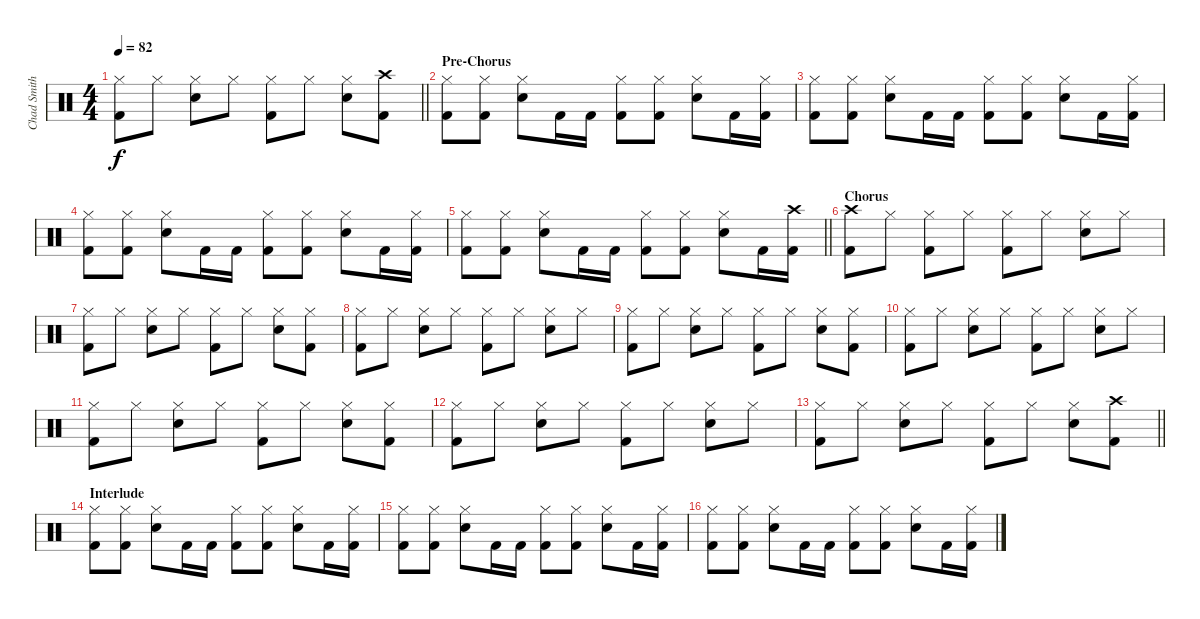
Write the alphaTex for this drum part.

\track ("Chad Smith Drum" "Chad Smith") {instrument percussion}
\staff {score}
\articulation defaults
\ts (4 4)
\tempo 82
\clef neutral
\barLineRight lightlight
\ks c
("Kick (hit) 2" "Hi-Hat (closed)").8{dy f} "Hi-Hat (closed)".8 ("Snare (hit) 2" "Hi-Hat (closed)").8 "Hi-Hat (closed)".8 ("Kick (hit) 2" "Hi-Hat (closed)").8 "Hi-Hat (closed)".8 ("Snare (hit) 2" "Hi-Hat (closed)").8 ("Kick (hit) 2" "Crash high (hit)").8 |
\section ("" "Pre-Chorus")
("Kick (hit) 2" "Hi-Hat (closed)").8 ("Kick (hit) 2" "Hi-Hat (closed)").8 ("Snare (hit) 2" "Hi-Hat (closed)").8 "Kick (hit) 2".16 "Kick (hit) 2".16 ("Kick (hit) 2" "Hi-Hat (closed)").8 ("Kick (hit) 2" "Hi-Hat (closed)").8 ("Snare (hit) 2" "Hi-Hat (closed)").8 "Kick (hit) 2".16 ("Kick (hit) 2" "Hi-Hat (closed)").16 |
("Kick (hit) 2" "Hi-Hat (closed)").8 ("Kick (hit) 2" "Hi-Hat (closed)").8 ("Snare (hit) 2" "Hi-Hat (closed)").8 "Kick (hit) 2".16 "Kick (hit) 2".16 ("Kick (hit) 2" "Hi-Hat (closed)").8 ("Kick (hit) 2" "Hi-Hat (closed)").8 ("Snare (hit) 2" "Hi-Hat (closed)").8 "Kick (hit) 2".16 ("Kick (hit) 2" "Hi-Hat (closed)").16 |
("Kick (hit) 2" "Hi-Hat (closed)").8 ("Kick (hit) 2" "Hi-Hat (closed)").8 ("Snare (hit) 2" "Hi-Hat (closed)").8 "Kick (hit) 2".16 "Kick (hit) 2".16 ("Kick (hit) 2" "Hi-Hat (closed)").8 ("Kick (hit) 2" "Hi-Hat (closed)").8 ("Snare (hit) 2" "Hi-Hat (closed)").8 "Kick (hit) 2".16 ("Kick (hit) 2" "Hi-Hat (closed)").16 |
\barLineRight lightlight
("Kick (hit) 2" "Hi-Hat (closed)").8 ("Kick (hit) 2" "Hi-Hat (closed)").8 ("Snare (hit) 2" "Hi-Hat (closed)").8 "Kick (hit) 2".16 "Kick (hit) 2".16 ("Kick (hit) 2" "Hi-Hat (closed)").8 ("Kick (hit) 2" "Hi-Hat (closed)").8 ("Snare (hit) 2" "Hi-Hat (closed)").8 "Kick (hit) 2".16 ("Kick (hit) 2" "Crash high (hit)").16 |
\section ("" "Chorus")
("Crash high (hit)" "Kick (hit) 2").8 "Hi-Hat (closed)".8 ("Kick (hit) 2" "Hi-Hat (closed)").8 "Hi-Hat (closed)".8 ("Kick (hit) 2" "Hi-Hat (closed)").8 "Hi-Hat (closed)".8 ("Snare (hit) 2" "Hi-Hat (closed)").8 "Hi-Hat (closed)".8 |
("Kick (hit) 2" "Hi-Hat (closed)").8 "Hi-Hat (closed)".8 ("Snare (hit) 2" "Hi-Hat (closed)").8 "Hi-Hat (closed)".8 ("Kick (hit) 2" "Hi-Hat (closed)").8 "Hi-Hat (closed)".8 ("Snare (hit) 2" "Hi-Hat (closed)").8 ("Kick (hit) 2" "Hi-Hat (closed)").8 |
("Kick (hit) 2" "Hi-Hat (closed)").8 "Hi-Hat (closed)".8 ("Snare (hit) 2" "Hi-Hat (closed)").8 "Hi-Hat (closed)".8 ("Kick (hit) 2" "Hi-Hat (closed)").8 "Hi-Hat (closed)".8 ("Snare (hit) 2" "Hi-Hat (closed)").8 "Hi-Hat (closed)".8 |
("Kick (hit) 2" "Hi-Hat (closed)").8 "Hi-Hat (closed)".8 ("Snare (hit) 2" "Hi-Hat (closed)").8 "Hi-Hat (closed)".8 ("Kick (hit) 2" "Hi-Hat (closed)").8 "Hi-Hat (closed)".8 ("Snare (hit) 2" "Hi-Hat (closed)").8 ("Kick (hit) 2" "Hi-Hat (closed)").8 |
("Kick (hit) 2" "Hi-Hat (closed)").8 "Hi-Hat (closed)".8 ("Snare (hit) 2" "Hi-Hat (closed)").8 "Hi-Hat (closed)".8 ("Kick (hit) 2" "Hi-Hat (closed)").8 "Hi-Hat (closed)".8 ("Snare (hit) 2" "Hi-Hat (closed)").8 "Hi-Hat (closed)".8 |
("Kick (hit) 2" "Hi-Hat (closed)").8 "Hi-Hat (closed)".8 ("Snare (hit) 2" "Hi-Hat (closed)").8 "Hi-Hat (closed)".8 ("Kick (hit) 2" "Hi-Hat (closed)").8 "Hi-Hat (closed)".8 ("Snare (hit) 2" "Hi-Hat (closed)").8 ("Kick (hit) 2" "Hi-Hat (closed)").8 |
("Kick (hit) 2" "Hi-Hat (closed)").8 "Hi-Hat (closed)".8 ("Snare (hit) 2" "Hi-Hat (closed)").8 "Hi-Hat (closed)".8 ("Kick (hit) 2" "Hi-Hat (closed)").8 "Hi-Hat (closed)".8 ("Snare (hit) 2" "Hi-Hat (closed)").8 "Hi-Hat (closed)".8 |
\barLineRight lightlight
("Kick (hit) 2" "Hi-Hat (closed)").8 "Hi-Hat (closed)".8 ("Snare (hit) 2" "Hi-Hat (closed)").8 "Hi-Hat (closed)".8 ("Kick (hit) 2" "Hi-Hat (closed)").8 "Hi-Hat (closed)".8 ("Snare (hit) 2" "Hi-Hat (closed)").8 ("Kick (hit) 2" "Crash high (hit)").8 |
\section ("" "Interlude")
("Kick (hit) 2" "Hi-Hat (closed)").8 ("Kick (hit) 2" "Hi-Hat (closed)").8 ("Snare (hit) 2" "Hi-Hat (closed)").8 "Kick (hit) 2".16 "Kick (hit) 2".16 ("Kick (hit) 2" "Hi-Hat (closed)").8 ("Kick (hit) 2" "Hi-Hat (closed)").8 ("Snare (hit) 2" "Hi-Hat (closed)").8 "Kick (hit) 2".16 ("Kick (hit) 2" "Hi-Hat (closed)").16 |
("Kick (hit) 2" "Hi-Hat (closed)").8 ("Kick (hit) 2" "Hi-Hat (closed)").8 ("Snare (hit) 2" "Hi-Hat (closed)").8 "Kick (hit) 2".16 "Kick (hit) 2".16 ("Kick (hit) 2" "Hi-Hat (closed)").8 ("Kick (hit) 2" "Hi-Hat (closed)").8 ("Snare (hit) 2" "Hi-Hat (closed)").8 "Kick (hit) 2".16 ("Kick (hit) 2" "Hi-Hat (closed)").16 |
("Kick (hit) 2" "Hi-Hat (closed)").8 ("Kick (hit) 2" "Hi-Hat (closed)").8 ("Snare (hit) 2" "Hi-Hat (closed)").8 "Kick (hit) 2".16 "Kick (hit) 2".16 ("Kick (hit) 2" "Hi-Hat (closed)").8 ("Kick (hit) 2" "Hi-Hat (closed)").8 ("Snare (hit) 2" "Hi-Hat (closed)").8 "Kick (hit) 2".16 ("Kick (hit) 2" "Hi-Hat (closed)").16
